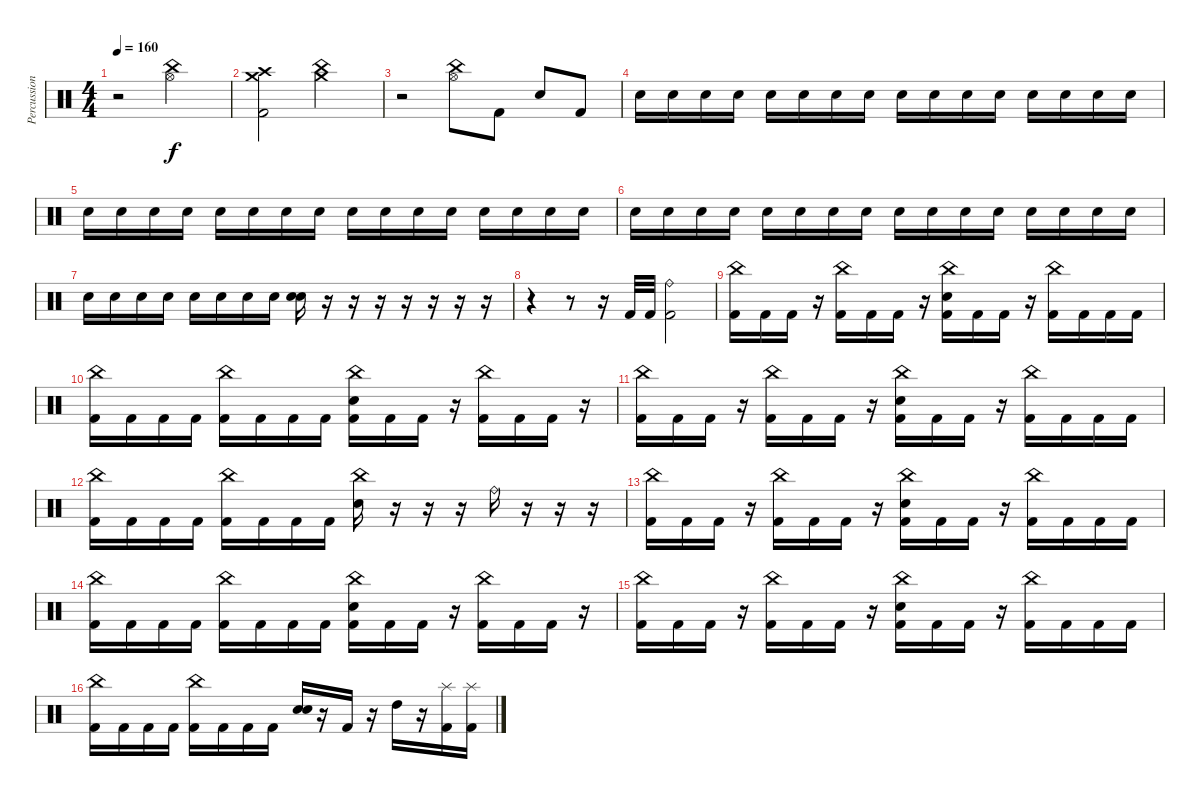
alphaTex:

\track ("Percussioni" "Percussion") {instrument percussion}
\staff {score}
\articulation defaults
\ts (4 4)
\tempo 160
\clef neutral
\ks c
r.2{dy f} ("China (hit)" "Hi-Hat (open)").2 |
("Crash medium (hit)" "Crash high (hit)" "Kick (hit) 2").2 ("Crash medium (hit)" "China (hit)").2 |
r.2 ("China (hit)" "Hi-Hat (open)").8 "Kick (hit) 2".8 "Electric Snare (hit)".8 "Kick (hit) 2".8 |
"Electric Snare (hit)".16 "Snare (hit) 2".16 "Snare (hit) 2".16 "Snare (hit) 2".16 "Electric Snare (hit)".16 "Snare (hit) 2".16 "Snare (hit) 2".16 "Snare (hit) 2".16 "Electric Snare (hit)".16 "Snare (hit) 2".16 "Snare (hit) 2".16 "Snare (hit) 2".16 "Electric Snare (hit)".16 "Snare (hit) 2".16 "Snare (hit) 2".16 "Snare (hit) 2".16 |
"Electric Snare (hit)".16 "Snare (hit) 2".16 "Snare (hit) 2".16 "Snare (hit) 2".16 "Electric Snare (hit)".16 "Snare (hit) 2".16 "Snare (hit) 2".16 "Snare (hit) 2".16 "Electric Snare (hit)".16 "Snare (hit) 2".16 "Snare (hit) 2".16 "Snare (hit) 2".16 "Electric Snare (hit)".16 "Snare (hit) 2".16 "Snare (hit) 2".16 "Snare (hit) 2".16 |
"Electric Snare (hit)".16 "Snare (hit) 2".16 "Snare (hit) 2".16 "Snare (hit) 2".16 "Electric Snare (hit)".16 "Snare (hit) 2".16 "Snare (hit) 2".16 "Snare (hit) 2".16 "Electric Snare (hit)".16 "Snare (hit) 2".16 "Snare (hit) 2".16 "Snare (hit) 2".16 "Electric Snare (hit)".16 "Electric Snare (hit)".16 "Electric Snare (hit)".16 "Electric Snare (hit)".16 |
"Electric Snare (hit)".16 "Electric Snare (hit)".16 "Electric Snare (hit)".16 "Electric Snare (hit)".16 "Electric Snare (hit)".16 "Electric Snare (hit)".16 "Electric Snare (hit)".16 "Electric Snare (hit)".16 ("Electric Snare (hit)" "Electric Snare (hit)").16 r.16 r.16 r.16 r.16 r.16 r.16 r.16 |
r.4 r.8 r.16 "Kick (hit) 2".32 "Kick (hit) 2".32 ("Ride (bell)" "Kick (hit) 2").2 |
("China (hit)" "Kick (hit) 2").16 "Kick (hit) 2".16 "Kick (hit) 2".16 r.16 ("China (hit)" "Kick (hit) 2").16 "Kick (hit) 2".16 "Kick (hit) 2".16 r.16 ("China (hit)" "Electric Snare (hit)" "Kick (hit) 2").16 "Kick (hit) 2".16 "Kick (hit) 2".16 r.16 ("China (hit)" "Kick (hit) 2").16 "Kick (hit) 2".16 "Kick (hit) 2".16 "Kick (hit) 2".16 |
("China (hit)" "Kick (hit) 2").16 "Kick (hit) 2".16 "Kick (hit) 2".16 "Kick (hit) 2".16 ("China (hit)" "Kick (hit) 2").16 "Kick (hit) 2".16 "Kick (hit) 2".16 "Kick (hit) 2".16 ("China (hit)" "Electric Snare (hit)" "Kick (hit) 2").16 "Kick (hit) 2".16 "Kick (hit) 2".16 r.16 ("China (hit)" "Kick (hit) 2").16 "Kick (hit) 2".16 "Kick (hit) 2".16 r.16 |
("China (hit)" "Kick (hit) 2").16 "Kick (hit) 2".16 "Kick (hit) 2".16 r.16 ("China (hit)" "Kick (hit) 2").16 "Kick (hit) 2".16 "Kick (hit) 2".16 r.16 ("China (hit)" "Electric Snare (hit)" "Kick (hit) 2").16 "Kick (hit) 2".16 "Kick (hit) 2".16 r.16 ("China (hit)" "Kick (hit) 2").16 "Kick (hit) 2".16 "Kick (hit) 2".16 "Kick (hit) 2".16 |
("China (hit)" "Kick (hit) 2").16 "Kick (hit) 2".16 "Kick (hit) 2".16 "Kick (hit) 2".16 ("China (hit)" "Kick (hit) 2").16 "Kick (hit) 2".16 "Kick (hit) 2".16 "Kick (hit) 2".16 ("China (hit)" "Electric Snare (hit)").16 r.16 r.16 r.16 "Ride (bell)".16 r.16 r.16 r.16 |
("China (hit)" "Kick (hit) 2").16 "Kick (hit) 2".16 "Kick (hit) 2".16 r.16 ("China (hit)" "Kick (hit) 2").16 "Kick (hit) 2".16 "Kick (hit) 2".16 r.16 ("China (hit)" "Electric Snare (hit)" "Kick (hit) 2").16 "Kick (hit) 2".16 "Kick (hit) 2".16 r.16 ("China (hit)" "Kick (hit) 2").16 "Kick (hit) 2".16 "Kick (hit) 2".16 "Kick (hit) 2".16 |
("China (hit)" "Kick (hit) 2").16 "Kick (hit) 2".16 "Kick (hit) 2".16 "Kick (hit) 2".16 ("China (hit)" "Kick (hit) 2").16 "Kick (hit) 2".16 "Kick (hit) 2".16 "Kick (hit) 2".16 ("China (hit)" "Electric Snare (hit)" "Kick (hit) 2").16 "Kick (hit) 2".16 "Kick (hit) 2".16 r.16 ("China (hit)" "Kick (hit) 2").16 "Kick (hit) 2".16 "Kick (hit) 2".16 r.16 |
("China (hit)" "Kick (hit) 2").16 "Kick (hit) 2".16 "Kick (hit) 2".16 r.16 ("China (hit)" "Kick (hit) 2").16 "Kick (hit) 2".16 "Kick (hit) 2".16 r.16 ("China (hit)" "Electric Snare (hit)" "Kick (hit) 2").16 "Kick (hit) 2".16 "Kick (hit) 2".16 r.16 ("China (hit)" "Kick (hit) 2").16 "Kick (hit) 2".16 "Kick (hit) 2".16 "Kick (hit) 2".16 |
("China (hit)" "Kick (hit) 2").16 "Kick (hit) 2".16 "Kick (hit) 2".16 "Kick (hit) 2".16 ("China (hit)" "Kick (hit) 2").16 "Kick (hit) 2".16 "Kick (hit) 2".16 "Kick (hit) 2".16 ("Electric Snare (hit)" "Electric Snare (hit)").16 r.16 "Kick (hit) 2".16 r.16 "High Tom (hit)".16 r.16 ("Splash (hit)" "Kick (hit) 2").16 ("Splash (hit)" "Kick (hit) 2").16
